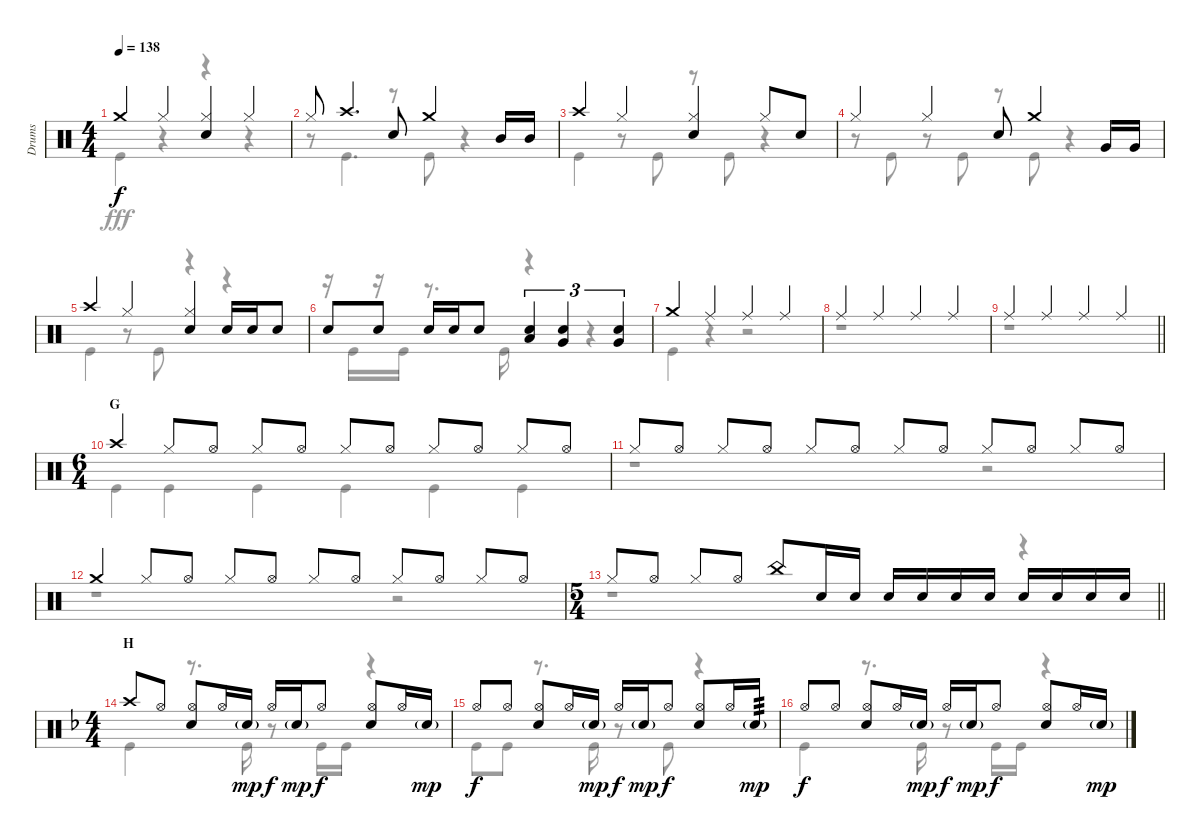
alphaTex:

\track ("Drums" "Drums") {instrument percussion}
\staff {score}
\articulation defaults
\voice
\ts (4 4)
\tempo 138
\clef neutral
\ks c "Crash medium (hit)".4{dy f} "Hi-Hat (closed)".4
("Hi-Hat (closed)" "Snare (hit) 2").4 "Hi-Hat (closed)".4 |
"Hi-Hat (closed)".8 "Crash high (hit)".4{d} "Snare (hit) 2".8 "Crash medium (hit)".4 "Mid Tom (hit)".16 "Mid Tom (hit)".16 |
"Crash high (hit)".4 "Hi-Hat (closed)".4 ("Hi-Hat (closed)" "Snare (hit) 2").4 "Hi-Hat (closed)".8 "Snare (hit) 2".8 |
"Hi-Hat (closed)".4 "Hi-Hat (closed)".4 "Snare (hit) 2".8 "Crash medium (hit)".4 "Very Low Tom (hit)".16 "Very Low Tom (hit)".16 |
"Crash high (hit)".4 "Hi-Hat (closed)".4 ("Hi-Hat (closed)" "Snare (hit) 2").4 "Snare (hit) 2".16 "Snare (hit) 2".16 "Snare (hit) 2".8 |
"Snare (hit) 2".8 "Snare (hit) 2".8 "Snare (hit) 2".16 "Snare (hit) 2".16 "Snare (hit) 2".8 ("Snare (hit) 2" "Low Tom (hit)").4{tu (3 2)} ("Snare (hit) 2" "Very Low Tom (hit)").4{tu (3 2)} ("Snare (hit) 2" "Very Low Tom (hit)").4{tu (3 2)} |
"Crash medium (hit)".4 "Ride (middle)".4 "Ride (middle)".4 "Ride (middle)".4 |
"Ride (middle)".4 "Ride (middle)".4 "Ride (middle)".4 "Ride (middle)".4 |
\barLineRight lightlight "Ride (middle)".4 "Ride (middle)".4 "Ride (middle)".4 "Ride (middle)".4
|
\ts (6 4)
\section ("" "G")
"Crash high (hit)".4 "Hi-Hat (closed)".8 "Hi-Hat (open)".8 "Hi-Hat (closed)".8 "Hi-Hat (open)".8 "Hi-Hat (closed)".8 "Hi-Hat (open)".8 "Hi-Hat (closed)".8 "Hi-Hat (open)".8 "Hi-Hat (closed)".8 "Hi-Hat (open)".8 |
"Hi-Hat (closed)".8 "Hi-Hat (open)".8 "Hi-Hat (closed)".8 "Hi-Hat (open)".8 "Hi-Hat (closed)".8 "Hi-Hat (open)".8 "Hi-Hat (closed)".8 "Hi-Hat (open)".8 "Hi-Hat (closed)".8 "Hi-Hat (open)".8 "Hi-Hat (closed)".8 "Hi-Hat (open)".8 |
"Crash medium (hit)".4 "Hi-Hat (closed)".8 "Hi-Hat (open)".8 "Hi-Hat (closed)".8 "Hi-Hat (open)".8 "Hi-Hat (closed)".8 "Hi-Hat (open)".8 "Hi-Hat (closed)".8 "Hi-Hat (open)".8 "Hi-Hat (closed)".8 "Hi-Hat (open)".8 |
\ts (5 4)
\barLineRight lightlight "Hi-Hat (closed)".8 "Hi-Hat (open)".8 "Hi-Hat (closed)".8 "Hi-Hat (open)".8 "China (hit)".8 "Snare (hit) 2".16 "Snare (hit) 2".16 "Snare (hit) 2".16 "Snare (hit) 2".16 "Snare (hit) 2".16 "Snare (hit) 2".16 "Snare (hit) 2".16 "Snare (hit) 2".16 "Snare (hit) 2".16 "Snare (hit) 2".16
|
\ts (4 4)
\section ("" "H")
\ks f "Crash high (hit)".8 "Hi-Hat (open)".8
("Hi-Hat (open)" "Snare (hit) 2").8 "Hi-Hat (open)".16 "Snare (hit) 2"{g}.16{dy mp} "Hi-Hat (open)".16{dy f} "Snare (hit) 2"{g}.16{dy mp} "Hi-Hat (open)".8{dy f} ("Hi-Hat (open)" "Snare (hit) 2").8 "Hi-Hat (open)".16 "Snare (hit) 2"{g}.16{dy mp} |
"Hi-Hat (open)".8{dy f} "Hi-Hat (open)".8 ("Hi-Hat (open)" "Snare (hit) 2").8 "Hi-Hat (open)".16 "Snare (hit) 2"{g}.16{dy mp} "Hi-Hat (open)".16{dy f} "Snare (hit) 2"{g}.16{dy mp} "Hi-Hat (open)".8{dy f} ("Hi-Hat (open)" "Snare (hit) 2").8 "Hi-Hat (open)".16 "Snare (hit) 2"{g}.16{tp 3 dy mp} |
"Hi-Hat (open)".8{dy f} "Hi-Hat (open)".8 ("Hi-Hat (open)" "Snare (hit) 2").8 "Hi-Hat (open)".16 "Snare (hit) 2"{g}.16{dy mp} "Hi-Hat (open)".16{dy f} "Snare (hit) 2"{g}.16{dy mp} "Hi-Hat (open)".8{dy f} ("Hi-Hat (open)" "Snare (hit) 2").8 "Hi-Hat (open)".16 "Snare (hit) 2"{g}.16{dy mp}
\voice
\clef neutral
\ottava regular
\simile none
\ks c "Kick (hit)".4{dy fff}
r.4 r.4 r.4 |
r.8 "Kick (hit)".4{d} r.8 "Kick (hit)".8 r.4 |
"Kick (hit)".4 r.8 "Kick (hit)".8 r.8 "Kick (hit)".8 r.4 |
r.8 "Kick (hit)".8 r.8 "Kick (hit)".8 r.8 "Kick (hit)".8 r.4 |
"Kick (hit)".4 r.8 "Kick (hit)".8 r.4 r.4 |
r.16 "Kick (hit)".16 r.16 "Kick (hit)".16 r.8{d} "Kick (hit)".16 r.4 r.4 |
"Kick (hit)".4 r.4 r.2 |
r.1 |
\barLineRight lightlight
r.1 |
"Kick (hit)".4 "Kick (hit)".4 "Kick (hit)".4 "Kick (hit)".4 "Kick (hit)".4 "Kick (hit)".4 |
r.1 r.2 |
r.1 r.2 |
\barLineRight lightlight
r.1 r.4 |
\ks f "Kick (hit)".4
r.8{d} "Kick (hit)".16 r.8 "Kick (hit)".16 "Kick (hit)".16 r.4 |
"Kick (hit)".8 "Kick (hit)".8 r.8{d} "Kick (hit)".16 r.8 "Kick (hit)".8 r.4 |
"Kick (hit)".4 r.8{d} "Kick (hit)".16 r.8 "Kick (hit)".16 "Kick (hit)".16 r.4
